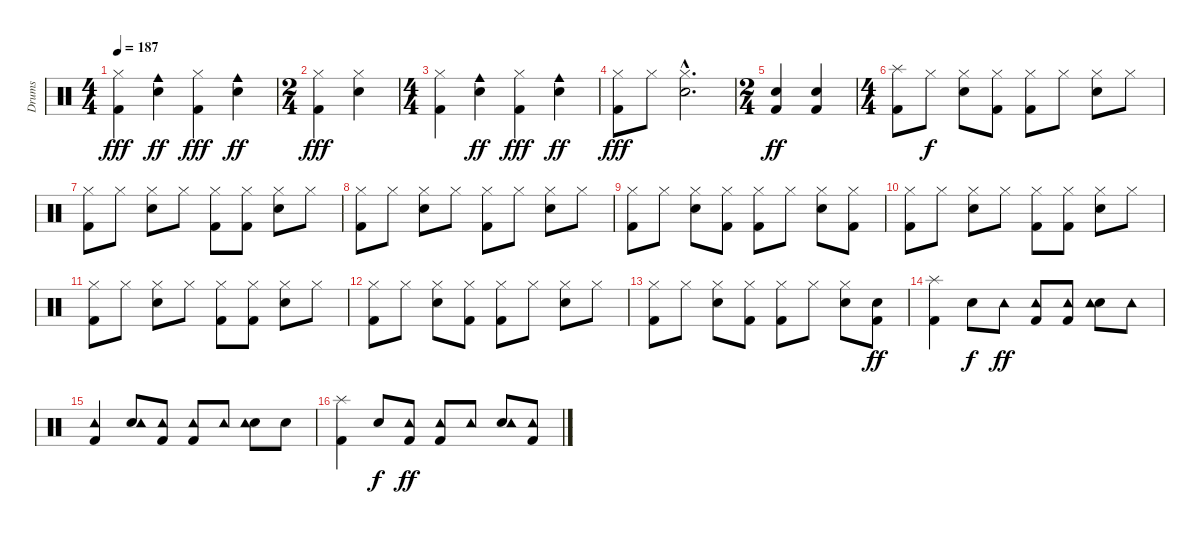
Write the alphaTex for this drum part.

\track ("Drums" "Drums") {instrument percussion}
\staff {score}
\articulation defaults
\ts (4 4)
\tempo 187
\clef neutral
\ks c
("Kick (hit) 2" "Hi-Hat (closed)").4{dy fff} ("Snare (hit) 2" "Cowbell medium (hit)").4{dy ff} ("Kick (hit) 2" "Hi-Hat (closed)").4{dy fff} ("Snare (hit) 2" "Cowbell medium (hit)").4{dy ff} |
\ts (2 4)
("Kick (hit) 2" "Hi-Hat (closed)").4{dy fff} ("Snare (hit) 2" "Hi-Hat (closed)").4 |
\ts (4 4)
("Kick (hit) 2" "Hi-Hat (closed)").4 ("Snare (hit) 2" "Cowbell medium (hit)").4{dy ff} ("Kick (hit) 2" "Hi-Hat (closed)").4{dy fff} ("Snare (hit) 2" "Cowbell medium (hit)").4{dy ff} |
("Kick (hit) 2" "Hi-Hat (closed)").8{dy fff} "Hi-Hat (closed)".8 ("Snare (hit) 2"{hac} "Hi-Hat (closed)"{hac}).2{d} |
\ts (2 4)
("Snare (hit) 2" "Kick (hit) 2").4{dy ff} ("Snare (hit) 2" "Kick (hit) 2").4 |
\ts (4 4)
("Kick (hit) 2" "Splash (hit)").8 "Hi-Hat (closed)".8{dy f} ("Snare (hit) 2" "Hi-Hat (closed)").8 ("Kick (hit) 2" "Hi-Hat (closed)").8 ("Kick (hit) 2" "Hi-Hat (closed)").8 "Hi-Hat (closed)".8 ("Snare (hit) 2" "Hi-Hat (closed)").8 "Hi-Hat (closed)".8 |
("Kick (hit) 2" "Hi-Hat (closed)").8 "Hi-Hat (closed)".8 ("Snare (hit) 2" "Hi-Hat (closed)").8 "Hi-Hat (closed)".8 ("Kick (hit) 2" "Hi-Hat (closed)").8 ("Kick (hit) 2" "Hi-Hat (closed)").8 ("Snare (hit) 2" "Hi-Hat (closed)").8 "Hi-Hat (closed)".8 |
("Kick (hit) 2" "Hi-Hat (closed)").8 "Hi-Hat (closed)".8 ("Snare (hit) 2" "Hi-Hat (closed)").8 "Hi-Hat (closed)".8 ("Kick (hit) 2" "Hi-Hat (closed)").8 "Hi-Hat (closed)".8 ("Snare (hit) 2" "Hi-Hat (closed)").8 "Hi-Hat (closed)".8 |
("Kick (hit) 2" "Hi-Hat (closed)").8 "Hi-Hat (closed)".8 ("Snare (hit) 2" "Hi-Hat (closed)").8 ("Kick (hit) 2" "Hi-Hat (closed)").8 ("Kick (hit) 2" "Hi-Hat (closed)").8 "Hi-Hat (closed)".8 ("Snare (hit) 2" "Hi-Hat (closed)").8 ("Kick (hit) 2" "Hi-Hat (closed)").8 |
("Kick (hit) 2" "Hi-Hat (closed)").8 "Hi-Hat (closed)".8 ("Snare (hit) 2" "Hi-Hat (closed)").8 "Hi-Hat (closed)".8 ("Kick (hit) 2" "Hi-Hat (closed)").8 ("Kick (hit) 2" "Hi-Hat (closed)").8 ("Snare (hit) 2" "Hi-Hat (closed)").8 "Hi-Hat (closed)".8 |
("Kick (hit) 2" "Hi-Hat (closed)").8 "Hi-Hat (closed)".8 ("Snare (hit) 2" "Hi-Hat (closed)").8 "Hi-Hat (closed)".8 ("Kick (hit) 2" "Hi-Hat (closed)").8 ("Kick (hit) 2" "Hi-Hat (closed)").8 ("Snare (hit) 2" "Hi-Hat (closed)").8 "Hi-Hat (closed)".8 |
("Kick (hit) 2" "Hi-Hat (closed)").8 "Hi-Hat (closed)".8 ("Snare (hit) 2" "Hi-Hat (closed)").8 ("Kick (hit) 2" "Hi-Hat (closed)").8 ("Kick (hit) 2" "Hi-Hat (closed)").8 "Hi-Hat (closed)".8 ("Snare (hit) 2" "Hi-Hat (closed)").8 "Hi-Hat (closed)".8 |
("Kick (hit) 2" "Hi-Hat (closed)").8 "Hi-Hat (closed)".8 ("Snare (hit) 2" "Hi-Hat (closed)").8 ("Kick (hit) 2" "Hi-Hat (closed)").8 ("Kick (hit) 2" "Hi-Hat (closed)").8 "Hi-Hat (closed)".8 ("Snare (hit) 2" "Hi-Hat (closed)").8 ("Kick (hit) 2" "Hand Clap (hit)").8{dy ff} |
("Kick (hit) 2" "Splash (hit)").4 "Snare (hit) 2".8{dy f} "Tambourine (hit)".8{dy ff} ("Kick (hit) 2" "Tambourine (hit)").8 ("Kick (hit) 2" "Tambourine (hit)").8 ("Snare (hit) 2" "Tambourine (hit)").8 "Tambourine (hit)".8 |
("Kick (hit) 2" "Tambourine (hit)").4 ("Snare (hit) 2" "Tambourine (hit)").8 ("Kick (hit) 2" "Tambourine (hit)").8 ("Kick (hit) 2" "Tambourine (hit)").8 "Tambourine (hit)".8 ("Snare (hit) 2" "Tambourine (hit)").8 "Hand Clap (hit)".8 |
("Kick (hit) 2" "Splash (hit)").4 "Snare (hit) 2".8{dy f} ("Kick (hit) 2" "Tambourine (hit)").8{dy ff} ("Kick (hit) 2" "Tambourine (hit)").8 "Tambourine (hit)".8 ("Snare (hit) 2" "Tambourine (hit)").8 ("Kick (hit) 2" "Tambourine (hit)").8
